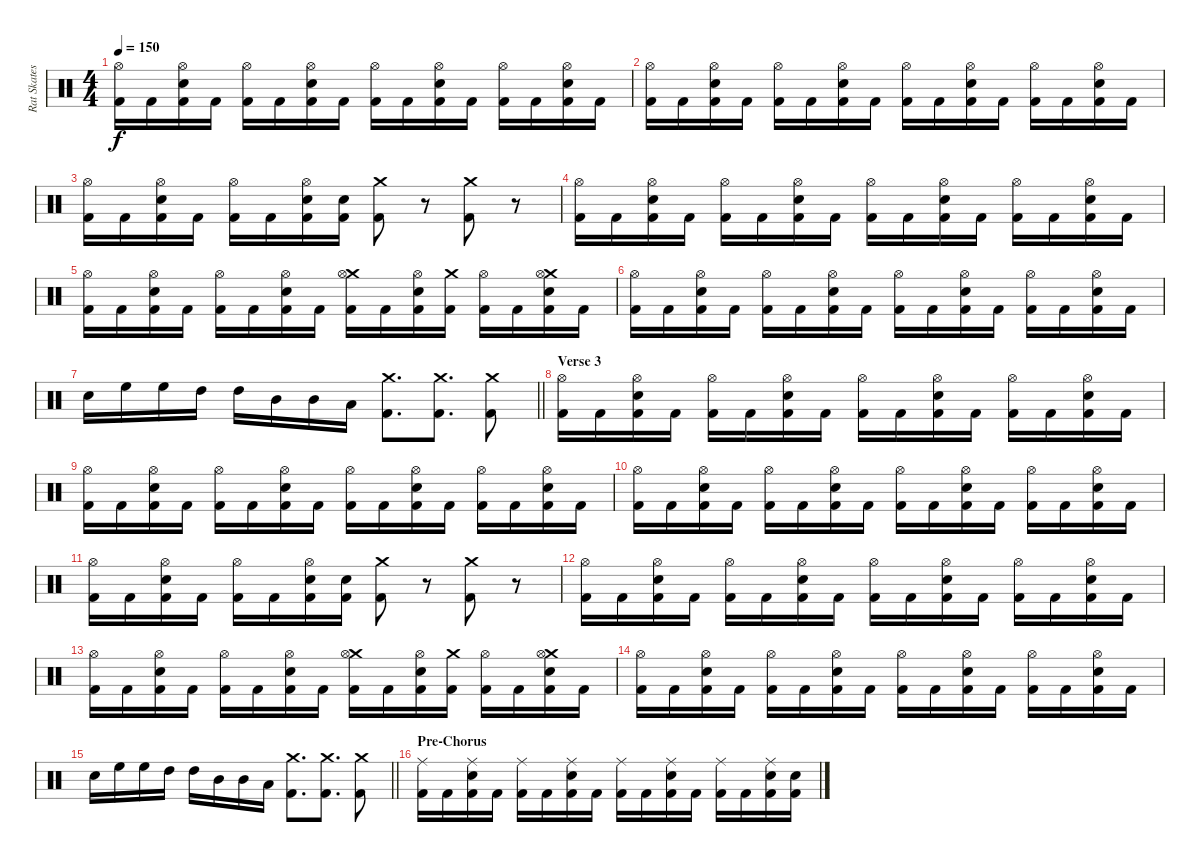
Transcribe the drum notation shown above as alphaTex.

\track ("Rat Skates" "Rat Skates") {instrument percussion}
\staff {score}
\articulation defaults
\ts (4 4)
\tempo 150
\clef neutral
\ks c
("Hi-Hat (open)" "Kick (hit) 2").16{dy f} "Kick (hit) 2".16 ("Hi-Hat (open)" "Snare (hit) 2" "Kick (hit) 2").16 "Kick (hit) 2".16 ("Hi-Hat (open)" "Kick (hit) 2").16 "Kick (hit) 2".16 ("Hi-Hat (open)" "Snare (hit) 2" "Kick (hit) 2").16 "Kick (hit) 2".16 ("Hi-Hat (open)" "Kick (hit) 2").16 "Kick (hit) 2".16 ("Hi-Hat (open)" "Snare (hit) 2" "Kick (hit) 2").16 "Kick (hit) 2".16 ("Hi-Hat (open)" "Kick (hit) 2").16 "Kick (hit) 2".16 ("Hi-Hat (open)" "Snare (hit) 2" "Kick (hit) 2").16 "Kick (hit) 2".16 |
("Hi-Hat (open)" "Kick (hit) 2").16 "Kick (hit) 2".16 ("Hi-Hat (open)" "Snare (hit) 2" "Kick (hit) 2").16 "Kick (hit) 2".16 ("Hi-Hat (open)" "Kick (hit) 2").16 "Kick (hit) 2".16 ("Hi-Hat (open)" "Snare (hit) 2" "Kick (hit) 2").16 "Kick (hit) 2".16 ("Hi-Hat (open)" "Kick (hit) 2").16 "Kick (hit) 2".16 ("Hi-Hat (open)" "Snare (hit) 2" "Kick (hit) 2").16 "Kick (hit) 2".16 ("Hi-Hat (open)" "Kick (hit) 2").16 "Kick (hit) 2".16 ("Hi-Hat (open)" "Snare (hit) 2" "Kick (hit) 2").16 "Kick (hit) 2".16 |
("Hi-Hat (open)" "Kick (hit) 2").16 "Kick (hit) 2".16 ("Hi-Hat (open)" "Snare (hit) 2" "Kick (hit) 2").16 "Kick (hit) 2".16 ("Hi-Hat (open)" "Kick (hit) 2").16 "Kick (hit) 2".16 ("Hi-Hat (open)" "Snare (hit) 2" "Kick (hit) 2").16 ("Snare (hit) 2" "Kick (hit) 2").16 ("Crash medium (hit)" "Kick (hit) 2").8 r.8 ("Crash medium (hit)" "Kick (hit) 2").8 r.8 |
("Hi-Hat (open)" "Kick (hit) 2").16 "Kick (hit) 2".16 ("Hi-Hat (open)" "Snare (hit) 2" "Kick (hit) 2").16 "Kick (hit) 2".16 ("Hi-Hat (open)" "Kick (hit) 2").16 "Kick (hit) 2".16 ("Hi-Hat (open)" "Snare (hit) 2" "Kick (hit) 2").16 "Kick (hit) 2".16 ("Hi-Hat (open)" "Kick (hit) 2").16 "Kick (hit) 2".16 ("Hi-Hat (open)" "Snare (hit) 2" "Kick (hit) 2").16 "Kick (hit) 2".16 ("Hi-Hat (open)" "Kick (hit) 2").16 "Kick (hit) 2".16 ("Hi-Hat (open)" "Snare (hit) 2" "Kick (hit) 2").16 "Kick (hit) 2".16 |
("Hi-Hat (open)" "Kick (hit) 2").16 "Kick (hit) 2".16 ("Hi-Hat (open)" "Snare (hit) 2" "Kick (hit) 2").16 "Kick (hit) 2".16 ("Hi-Hat (open)" "Kick (hit) 2").16 "Kick (hit) 2".16 ("Hi-Hat (open)" "Snare (hit) 2" "Kick (hit) 2").16 "Kick (hit) 2".16 ("Crash medium (hit)" "Hi-Hat (open)" "Kick (hit) 2").16 "Kick (hit) 2".16 ("Hi-Hat (open)" "Snare (hit) 2" "Kick (hit) 2").16 ("Crash medium (hit)" "Kick (hit) 2").16 ("Hi-Hat (open)" "Kick (hit) 2").16 "Kick (hit) 2".16 ("Crash medium (hit)" "Hi-Hat (open)" "Snare (hit) 2" "Kick (hit) 2").16 "Kick (hit) 2".16 |
("Hi-Hat (open)" "Kick (hit) 2").16 "Kick (hit) 2".16 ("Hi-Hat (open)" "Snare (hit) 2" "Kick (hit) 2").16 "Kick (hit) 2".16 ("Hi-Hat (open)" "Kick (hit) 2").16 "Kick (hit) 2".16 ("Hi-Hat (open)" "Snare (hit) 2" "Kick (hit) 2").16 "Kick (hit) 2".16 ("Hi-Hat (open)" "Kick (hit) 2").16 "Kick (hit) 2".16 ("Hi-Hat (open)" "Snare (hit) 2" "Kick (hit) 2").16 "Kick (hit) 2".16 ("Hi-Hat (open)" "Kick (hit) 2").16 "Kick (hit) 2".16 ("Hi-Hat (open)" "Snare (hit) 2" "Kick (hit) 2").16 "Kick (hit) 2".16 |
\barLineRight lightlight "Snare (hit) 2".16 "High Floor Tom (hit)".16 "High Floor Tom (hit)".16 "High Tom (hit)".16 "High Tom (hit)".16 "Mid Tom (hit)".16 "Mid Tom (hit)".16 "Low Tom (hit)".16
("Crash medium (hit)" "Kick (hit) 2").8{d} ("Crash medium (hit)" "Kick (hit) 2").8{d} ("Crash medium (hit)" "Kick (hit) 2").8 |
\section ("" "Verse 3")
("Hi-Hat (open)" "Kick (hit) 2").16 "Kick (hit) 2".16 ("Hi-Hat (open)" "Snare (hit) 2" "Kick (hit) 2").16 "Kick (hit) 2".16 ("Hi-Hat (open)" "Kick (hit) 2").16 "Kick (hit) 2".16 ("Hi-Hat (open)" "Snare (hit) 2" "Kick (hit) 2").16 "Kick (hit) 2".16 ("Hi-Hat (open)" "Kick (hit) 2").16 "Kick (hit) 2".16 ("Hi-Hat (open)" "Snare (hit) 2" "Kick (hit) 2").16 "Kick (hit) 2".16 ("Hi-Hat (open)" "Kick (hit) 2").16 "Kick (hit) 2".16 ("Hi-Hat (open)" "Snare (hit) 2" "Kick (hit) 2").16 "Kick (hit) 2".16 |
("Hi-Hat (open)" "Kick (hit) 2").16 "Kick (hit) 2".16 ("Hi-Hat (open)" "Snare (hit) 2" "Kick (hit) 2").16 "Kick (hit) 2".16 ("Hi-Hat (open)" "Kick (hit) 2").16 "Kick (hit) 2".16 ("Hi-Hat (open)" "Snare (hit) 2" "Kick (hit) 2").16 "Kick (hit) 2".16 ("Hi-Hat (open)" "Kick (hit) 2").16 "Kick (hit) 2".16 ("Hi-Hat (open)" "Snare (hit) 2" "Kick (hit) 2").16 "Kick (hit) 2".16 ("Hi-Hat (open)" "Kick (hit) 2").16 "Kick (hit) 2".16 ("Hi-Hat (open)" "Snare (hit) 2" "Kick (hit) 2").16 "Kick (hit) 2".16 |
("Hi-Hat (open)" "Kick (hit) 2").16 "Kick (hit) 2".16 ("Hi-Hat (open)" "Snare (hit) 2" "Kick (hit) 2").16 "Kick (hit) 2".16 ("Hi-Hat (open)" "Kick (hit) 2").16 "Kick (hit) 2".16 ("Hi-Hat (open)" "Snare (hit) 2" "Kick (hit) 2").16 "Kick (hit) 2".16 ("Hi-Hat (open)" "Kick (hit) 2").16 "Kick (hit) 2".16 ("Hi-Hat (open)" "Snare (hit) 2" "Kick (hit) 2").16 "Kick (hit) 2".16 ("Hi-Hat (open)" "Kick (hit) 2").16 "Kick (hit) 2".16 ("Hi-Hat (open)" "Snare (hit) 2" "Kick (hit) 2").16 "Kick (hit) 2".16 |
("Hi-Hat (open)" "Kick (hit) 2").16 "Kick (hit) 2".16 ("Hi-Hat (open)" "Snare (hit) 2" "Kick (hit) 2").16 "Kick (hit) 2".16 ("Hi-Hat (open)" "Kick (hit) 2").16 "Kick (hit) 2".16 ("Hi-Hat (open)" "Snare (hit) 2" "Kick (hit) 2").16 ("Snare (hit) 2" "Kick (hit) 2").16 ("Crash medium (hit)" "Kick (hit) 2").8 r.8 ("Crash medium (hit)" "Kick (hit) 2").8 r.8 |
("Hi-Hat (open)" "Kick (hit) 2").16 "Kick (hit) 2".16 ("Hi-Hat (open)" "Snare (hit) 2" "Kick (hit) 2").16 "Kick (hit) 2".16 ("Hi-Hat (open)" "Kick (hit) 2").16 "Kick (hit) 2".16 ("Hi-Hat (open)" "Snare (hit) 2" "Kick (hit) 2").16 "Kick (hit) 2".16 ("Hi-Hat (open)" "Kick (hit) 2").16 "Kick (hit) 2".16 ("Hi-Hat (open)" "Snare (hit) 2" "Kick (hit) 2").16 "Kick (hit) 2".16 ("Hi-Hat (open)" "Kick (hit) 2").16 "Kick (hit) 2".16 ("Hi-Hat (open)" "Snare (hit) 2" "Kick (hit) 2").16 "Kick (hit) 2".16 |
("Hi-Hat (open)" "Kick (hit) 2").16 "Kick (hit) 2".16 ("Hi-Hat (open)" "Snare (hit) 2" "Kick (hit) 2").16 "Kick (hit) 2".16 ("Hi-Hat (open)" "Kick (hit) 2").16 "Kick (hit) 2".16 ("Hi-Hat (open)" "Snare (hit) 2" "Kick (hit) 2").16 "Kick (hit) 2".16 ("Crash medium (hit)" "Hi-Hat (open)" "Kick (hit) 2").16 "Kick (hit) 2".16 ("Hi-Hat (open)" "Snare (hit) 2" "Kick (hit) 2").16 ("Crash medium (hit)" "Kick (hit) 2").16 ("Hi-Hat (open)" "Kick (hit) 2").16 "Kick (hit) 2".16 ("Crash medium (hit)" "Hi-Hat (open)" "Snare (hit) 2" "Kick (hit) 2").16 "Kick (hit) 2".16 |
("Hi-Hat (open)" "Kick (hit) 2").16 "Kick (hit) 2".16 ("Hi-Hat (open)" "Snare (hit) 2" "Kick (hit) 2").16 "Kick (hit) 2".16 ("Hi-Hat (open)" "Kick (hit) 2").16 "Kick (hit) 2".16 ("Hi-Hat (open)" "Snare (hit) 2" "Kick (hit) 2").16 "Kick (hit) 2".16 ("Hi-Hat (open)" "Kick (hit) 2").16 "Kick (hit) 2".16 ("Hi-Hat (open)" "Snare (hit) 2" "Kick (hit) 2").16 "Kick (hit) 2".16 ("Hi-Hat (open)" "Kick (hit) 2").16 "Kick (hit) 2".16 ("Hi-Hat (open)" "Snare (hit) 2" "Kick (hit) 2").16 "Kick (hit) 2".16 |
\barLineRight lightlight "Snare (hit) 2".16 "High Floor Tom (hit)".16 "High Floor Tom (hit)".16 "High Tom (hit)".16 "High Tom (hit)".16 "Mid Tom (hit)".16 "Mid Tom (hit)".16 "Low Tom (hit)".16
("Crash medium (hit)" "Kick (hit) 2").8{d} ("Crash medium (hit)" "Kick (hit) 2").8{d} ("Crash medium (hit)" "Kick (hit) 2").8 |
\section ("" "Pre-Chorus")
("Ride (middle)" "Kick (hit) 2").16 "Kick (hit) 2".16 ("Ride (middle)" "Snare (hit) 2" "Kick (hit) 2").16 "Kick (hit) 2".16 ("Ride (middle)" "Kick (hit) 2").16 "Kick (hit) 2".16 ("Ride (middle)" "Snare (hit) 2" "Kick (hit) 2").16 "Kick (hit) 2".16 ("Ride (middle)" "Kick (hit) 2").16 "Kick (hit) 2".16 ("Ride (middle)" "Snare (hit) 2" "Kick (hit) 2").16 "Kick (hit) 2".16 ("Ride (middle)" "Kick (hit) 2").16 "Kick (hit) 2".16 ("Ride (middle)" "Snare (hit) 2" "Kick (hit) 2").16 ("Snare (hit) 2" "Kick (hit) 2").16
